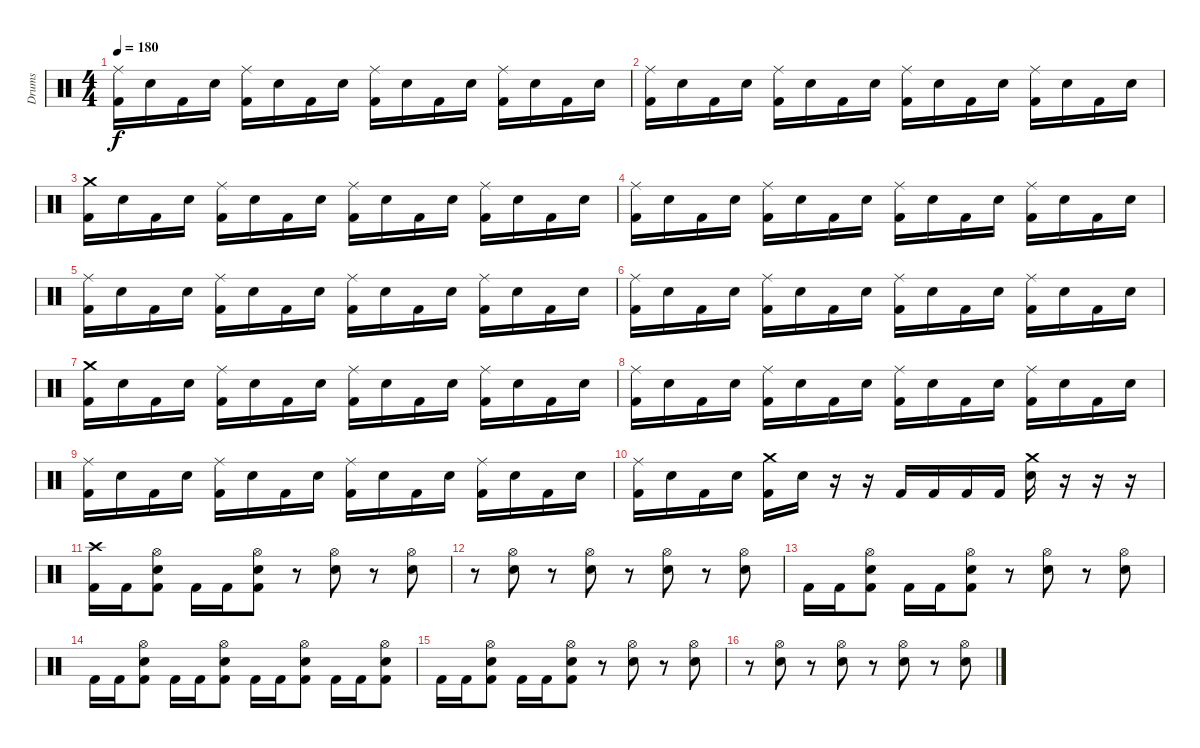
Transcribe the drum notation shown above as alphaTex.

\track ("Drums" "Drums") {instrument percussion}
\staff {score}
\articulation defaults
\ts (4 4)
\tempo 180
\clef neutral
\ks c
("Ride (middle)" "Kick (hit) 2").16{dy f} "Electric Snare (hit)".16 "Kick (hit) 2".16 "Electric Snare (hit)".16 ("Ride (middle)" "Kick (hit) 2").16 "Electric Snare (hit)".16 "Kick (hit) 2".16 "Electric Snare (hit)".16 ("Ride (middle)" "Kick (hit) 2").16 "Electric Snare (hit)".16 "Kick (hit) 2".16 "Electric Snare (hit)".16 ("Ride (middle)" "Kick (hit) 2").16 "Electric Snare (hit)".16 "Kick (hit) 2".16 "Electric Snare (hit)".16 |
("Ride (middle)" "Kick (hit) 2").16 "Electric Snare (hit)".16 "Kick (hit) 2".16 "Electric Snare (hit)".16 ("Ride (middle)" "Kick (hit) 2").16 "Electric Snare (hit)".16 "Kick (hit) 2".16 "Electric Snare (hit)".16 ("Ride (middle)" "Kick (hit) 2").16 "Electric Snare (hit)".16 "Kick (hit) 2".16 "Electric Snare (hit)".16 ("Ride (middle)" "Kick (hit) 2").16 "Electric Snare (hit)".16 "Kick (hit) 2".16 "Electric Snare (hit)".16 |
("Crash medium (hit)" "Kick (hit) 2").16 "Electric Snare (hit)".16 "Kick (hit) 2".16 "Electric Snare (hit)".16 ("Ride (middle)" "Kick (hit) 2").16 "Electric Snare (hit)".16 "Kick (hit) 2".16 "Electric Snare (hit)".16 ("Ride (middle)" "Kick (hit) 2").16 "Electric Snare (hit)".16 "Kick (hit) 2".16 "Electric Snare (hit)".16 ("Ride (middle)" "Kick (hit) 2").16 "Electric Snare (hit)".16 "Kick (hit) 2".16 "Electric Snare (hit)".16 |
("Ride (middle)" "Kick (hit) 2").16 "Electric Snare (hit)".16 "Kick (hit) 2".16 "Electric Snare (hit)".16 ("Ride (middle)" "Kick (hit) 2").16 "Electric Snare (hit)".16 "Kick (hit) 2".16 "Electric Snare (hit)".16 ("Ride (middle)" "Kick (hit) 2").16 "Electric Snare (hit)".16 "Kick (hit) 2".16 "Electric Snare (hit)".16 ("Ride (middle)" "Kick (hit) 2").16 "Electric Snare (hit)".16 "Kick (hit) 2".16 "Electric Snare (hit)".16 |
("Ride (middle)" "Kick (hit) 2").16 "Electric Snare (hit)".16 "Kick (hit) 2".16 "Electric Snare (hit)".16 ("Ride (middle)" "Kick (hit) 2").16 "Electric Snare (hit)".16 "Kick (hit) 2".16 "Electric Snare (hit)".16 ("Ride (middle)" "Kick (hit) 2").16 "Electric Snare (hit)".16 "Kick (hit) 2".16 "Electric Snare (hit)".16 ("Ride (middle)" "Kick (hit) 2").16 "Electric Snare (hit)".16 "Kick (hit) 2".16 "Electric Snare (hit)".16 |
("Ride (middle)" "Kick (hit) 2").16 "Electric Snare (hit)".16 "Kick (hit) 2".16 "Electric Snare (hit)".16 ("Ride (middle)" "Kick (hit) 2").16 "Electric Snare (hit)".16 "Kick (hit) 2".16 "Electric Snare (hit)".16 ("Ride (middle)" "Kick (hit) 2").16 "Electric Snare (hit)".16 "Kick (hit) 2".16 "Electric Snare (hit)".16 ("Ride (middle)" "Kick (hit) 2").16 "Electric Snare (hit)".16 "Kick (hit) 2".16 "Electric Snare (hit)".16 |
("Crash medium (hit)" "Kick (hit) 2").16 "Electric Snare (hit)".16 "Kick (hit) 2".16 "Electric Snare (hit)".16 ("Ride (middle)" "Kick (hit) 2").16 "Electric Snare (hit)".16 "Kick (hit) 2".16 "Electric Snare (hit)".16 ("Ride (middle)" "Kick (hit) 2").16 "Electric Snare (hit)".16 "Kick (hit) 2".16 "Electric Snare (hit)".16 ("Ride (middle)" "Kick (hit) 2").16 "Electric Snare (hit)".16 "Kick (hit) 2".16 "Electric Snare (hit)".16 |
("Ride (middle)" "Kick (hit) 2").16 "Electric Snare (hit)".16 "Kick (hit) 2".16 "Electric Snare (hit)".16 ("Ride (middle)" "Kick (hit) 2").16 "Electric Snare (hit)".16 "Kick (hit) 2".16 "Electric Snare (hit)".16 ("Ride (middle)" "Kick (hit) 2").16 "Electric Snare (hit)".16 "Kick (hit) 2".16 "Electric Snare (hit)".16 ("Ride (middle)" "Kick (hit) 2").16 "Electric Snare (hit)".16 "Kick (hit) 2".16 "Electric Snare (hit)".16 |
("Ride (middle)" "Kick (hit) 2").16 "Electric Snare (hit)".16 "Kick (hit) 2".16 "Electric Snare (hit)".16 ("Ride (middle)" "Kick (hit) 2").16 "Electric Snare (hit)".16 "Kick (hit) 2".16 "Electric Snare (hit)".16 ("Ride (middle)" "Kick (hit) 2").16 "Electric Snare (hit)".16 "Kick (hit) 2".16 "Electric Snare (hit)".16 ("Ride (middle)" "Kick (hit) 2").16 "Electric Snare (hit)".16 "Kick (hit) 2".16 "Electric Snare (hit)".16 |
("Ride (middle)" "Kick (hit) 2").16 "Electric Snare (hit)".16 "Kick (hit) 2".16 "Electric Snare (hit)".16 ("Crash medium (hit)" "Kick (hit) 2").16 "Electric Snare (hit)".16 r.16 r.16 "Kick (hit) 2".16 "Kick (hit) 2".16 "Kick (hit) 2".16 "Kick (hit) 2".16 ("Crash medium (hit)" "Electric Snare (hit)").16 r.16 r.16 r.16 |
("Crash high (hit)" "Kick (hit) 2").16 "Kick (hit) 2".16 ("Hi-Hat (open)" "Electric Snare (hit)" "Kick (hit) 2").8 "Kick (hit) 2".16 "Kick (hit) 2".16 ("Hi-Hat (open)" "Electric Snare (hit)" "Kick (hit) 2").8 r.8 ("Hi-Hat (open)" "Electric Snare (hit)").8 r.8 ("Hi-Hat (open)" "Electric Snare (hit)").8 |
r.8 ("Hi-Hat (open)" "Electric Snare (hit)").8 r.8 ("Hi-Hat (open)" "Electric Snare (hit)").8 r.8 ("Hi-Hat (open)" "Electric Snare (hit)").8 r.8 ("Hi-Hat (open)" "Electric Snare (hit)").8 |
"Kick (hit) 2".16 "Kick (hit) 2".16 ("Hi-Hat (open)" "Electric Snare (hit)" "Kick (hit) 2").8 "Kick (hit) 2".16 "Kick (hit) 2".16 ("Hi-Hat (open)" "Electric Snare (hit)" "Kick (hit) 2").8 r.8 ("Hi-Hat (open)" "Electric Snare (hit)").8 r.8 ("Hi-Hat (open)" "Electric Snare (hit)").8 |
"Kick (hit) 2".16 "Kick (hit) 2".16 ("Hi-Hat (open)" "Electric Snare (hit)" "Kick (hit) 2").8 "Kick (hit) 2".16 "Kick (hit) 2".16 ("Hi-Hat (open)" "Electric Snare (hit)" "Kick (hit) 2").8 "Kick (hit) 2".16 "Kick (hit) 2".16 ("Hi-Hat (open)" "Electric Snare (hit)" "Kick (hit) 2").8 "Kick (hit) 2".16 "Kick (hit) 2".16 ("Hi-Hat (open)" "Electric Snare (hit)" "Kick (hit) 2").8 |
"Kick (hit) 2".16 "Kick (hit) 2".16 ("Hi-Hat (open)" "Electric Snare (hit)" "Kick (hit) 2").8 "Kick (hit) 2".16 "Kick (hit) 2".16 ("Hi-Hat (open)" "Electric Snare (hit)" "Kick (hit) 2").8 r.8 ("Hi-Hat (open)" "Electric Snare (hit)").8 r.8 ("Hi-Hat (open)" "Electric Snare (hit)").8 |
r.8 ("Hi-Hat (open)" "Electric Snare (hit)").8 r.8 ("Hi-Hat (open)" "Electric Snare (hit)").8 r.8 ("Hi-Hat (open)" "Electric Snare (hit)").8 r.8 ("Hi-Hat (open)" "Electric Snare (hit)").8
